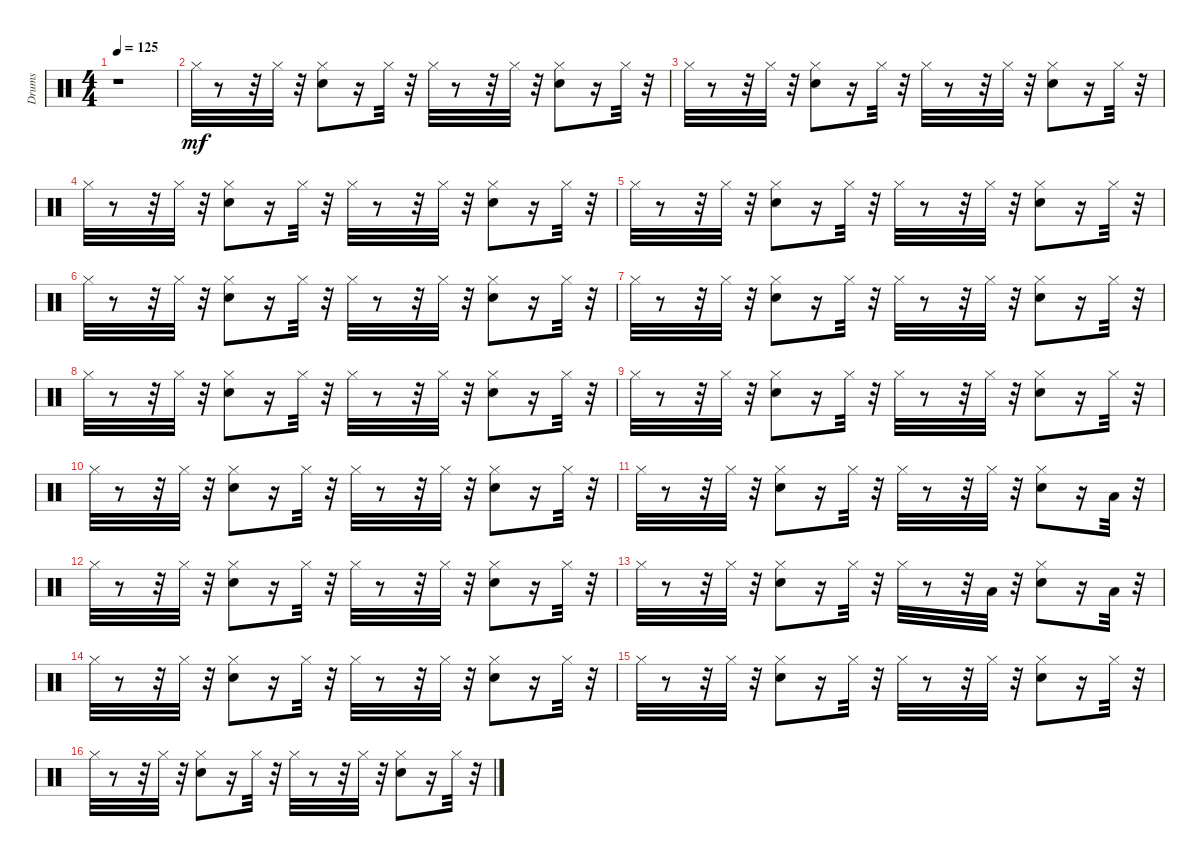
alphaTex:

\track ("Drums" "Drums") {instrument percussion}
\staff {score}
\articulation defaults
\ts (4 4)
\tempo 125
\clef neutral
\ks c
r.1{dy mf} |
"Hi-Hat (closed)".32 r.8 r.32 "Hi-Hat (closed)".32 r.32 ("Snare (hit) 2" "Hi-Hat (closed)").8 r.16 "Hi-Hat (closed)".32 r.32 "Hi-Hat (closed)".32 r.8 r.32 "Hi-Hat (closed)".32 r.32 ("Snare (hit) 2" "Hi-Hat (closed)").8 r.16 "Hi-Hat (closed)".32 r.32 |
"Hi-Hat (closed)".32 r.8 r.32 "Hi-Hat (closed)".32 r.32 ("Snare (hit) 2" "Hi-Hat (closed)").8 r.16 "Hi-Hat (closed)".32 r.32 "Hi-Hat (closed)".32 r.8 r.32 "Hi-Hat (closed)".32 r.32 ("Snare (hit) 2" "Hi-Hat (closed)").8 r.16 "Hi-Hat (closed)".32 r.32 |
"Hi-Hat (closed)".32 r.8 r.32 "Hi-Hat (closed)".32 r.32 ("Snare (hit) 2" "Hi-Hat (closed)").8 r.16 "Hi-Hat (closed)".32 r.32 "Hi-Hat (closed)".32 r.8 r.32 "Hi-Hat (closed)".32 r.32 ("Snare (hit) 2" "Hi-Hat (closed)").8 r.16 "Hi-Hat (closed)".32 r.32 |
"Hi-Hat (closed)".32 r.8 r.32 "Hi-Hat (closed)".32 r.32 ("Snare (hit) 2" "Hi-Hat (closed)").8 r.16 "Hi-Hat (closed)".32 r.32 "Hi-Hat (closed)".32 r.8 r.32 "Hi-Hat (closed)".32 r.32 ("Snare (hit) 2" "Hi-Hat (closed)").8 r.16 "Hi-Hat (closed)".32 r.32 |
"Hi-Hat (closed)".32 r.8 r.32 "Hi-Hat (closed)".32 r.32 ("Snare (hit) 2" "Hi-Hat (closed)").8 r.16 "Hi-Hat (closed)".32 r.32 "Hi-Hat (closed)".32 r.8 r.32 "Hi-Hat (closed)".32 r.32 ("Snare (hit) 2" "Hi-Hat (closed)").8 r.16 "Hi-Hat (closed)".32 r.32 |
"Hi-Hat (closed)".32 r.8 r.32 "Hi-Hat (closed)".32 r.32 ("Snare (hit) 2" "Hi-Hat (closed)").8 r.16 "Hi-Hat (closed)".32 r.32 "Hi-Hat (closed)".32 r.8 r.32 "Hi-Hat (closed)".32 r.32 ("Snare (hit) 2" "Hi-Hat (closed)").8 r.16 "Hi-Hat (closed)".32 r.32 |
"Hi-Hat (closed)".32 r.8 r.32 "Hi-Hat (closed)".32 r.32 ("Snare (hit) 2" "Hi-Hat (closed)").8 r.16 "Hi-Hat (closed)".32 r.32 "Hi-Hat (closed)".32 r.8 r.32 "Hi-Hat (closed)".32 r.32 ("Snare (hit) 2" "Hi-Hat (closed)").8 r.16 "Hi-Hat (closed)".32 r.32 |
"Hi-Hat (closed)".32 r.8 r.32 "Hi-Hat (closed)".32 r.32 ("Snare (hit) 2" "Hi-Hat (closed)").8 r.16 "Hi-Hat (closed)".32 r.32 "Hi-Hat (closed)".32 r.8 r.32 "Hi-Hat (closed)".32 r.32 ("Snare (hit) 2" "Hi-Hat (closed)").8 r.16 "Hi-Hat (closed)".32 r.32 |
"Hi-Hat (closed)".32 r.8 r.32 "Hi-Hat (closed)".32 r.32 ("Snare (hit) 2" "Hi-Hat (closed)").8 r.16 "Hi-Hat (closed)".32 r.32 "Hi-Hat (closed)".32 r.8 r.32 "Hi-Hat (closed)".32 r.32 ("Snare (hit) 2" "Hi-Hat (closed)").8 r.16 "Hi-Hat (closed)".32 r.32 |
"Hi-Hat (closed)".32 r.8 r.32 "Hi-Hat (closed)".32 r.32 ("Snare (hit) 2" "Hi-Hat (closed)").8 r.16 "Hi-Hat (closed)".32 r.32 "Hi-Hat (closed)".32 r.8 r.32 "Hi-Hat (closed)".32 r.32 ("Snare (hit) 2" "Hi-Hat (closed)").8 r.16 "Low Floor Tom (hit)".32 r.32 |
"Hi-Hat (closed)".32 r.8 r.32 "Hi-Hat (closed)".32 r.32 ("Snare (hit) 2" "Hi-Hat (closed)").8 r.16 "Hi-Hat (closed)".32 r.32 "Hi-Hat (closed)".32 r.8 r.32 "Hi-Hat (closed)".32 r.32 ("Snare (hit) 2" "Hi-Hat (closed)").8 r.16 "Hi-Hat (closed)".32 r.32 |
"Hi-Hat (closed)".32 r.8 r.32 "Hi-Hat (closed)".32 r.32 ("Snare (hit) 2" "Hi-Hat (closed)").8 r.16 "Hi-Hat (closed)".32 r.32 "Hi-Hat (closed)".32 r.8 r.32 "Low Floor Tom (hit)".32 r.32 ("Snare (hit) 2" "Hi-Hat (closed)").8 r.16 "Low Floor Tom (hit)".32 r.32 |
"Hi-Hat (closed)".32 r.8 r.32 "Hi-Hat (closed)".32 r.32 ("Snare (hit) 2" "Hi-Hat (closed)").8 r.16 "Hi-Hat (closed)".32 r.32 "Hi-Hat (closed)".32 r.8 r.32 "Hi-Hat (closed)".32 r.32 ("Snare (hit) 2" "Hi-Hat (closed)").8 r.16 "Hi-Hat (closed)".32 r.32 |
"Hi-Hat (closed)".32 r.8 r.32 "Hi-Hat (closed)".32 r.32 ("Snare (hit) 2" "Hi-Hat (closed)").8 r.16 "Hi-Hat (closed)".32 r.32 "Hi-Hat (closed)".32 r.8 r.32 "Hi-Hat (closed)".32 r.32 ("Snare (hit) 2" "Hi-Hat (closed)").8 r.16 "Hi-Hat (closed)".32 r.32 |
"Hi-Hat (closed)".32 r.8 r.32 "Hi-Hat (closed)".32 r.32 ("Snare (hit) 2" "Hi-Hat (closed)").8 r.16 "Hi-Hat (closed)".32 r.32 "Hi-Hat (closed)".32 r.8 r.32 "Hi-Hat (closed)".32 r.32 ("Snare (hit) 2" "Hi-Hat (closed)").8 r.16 "Hi-Hat (closed)".32 r.32
